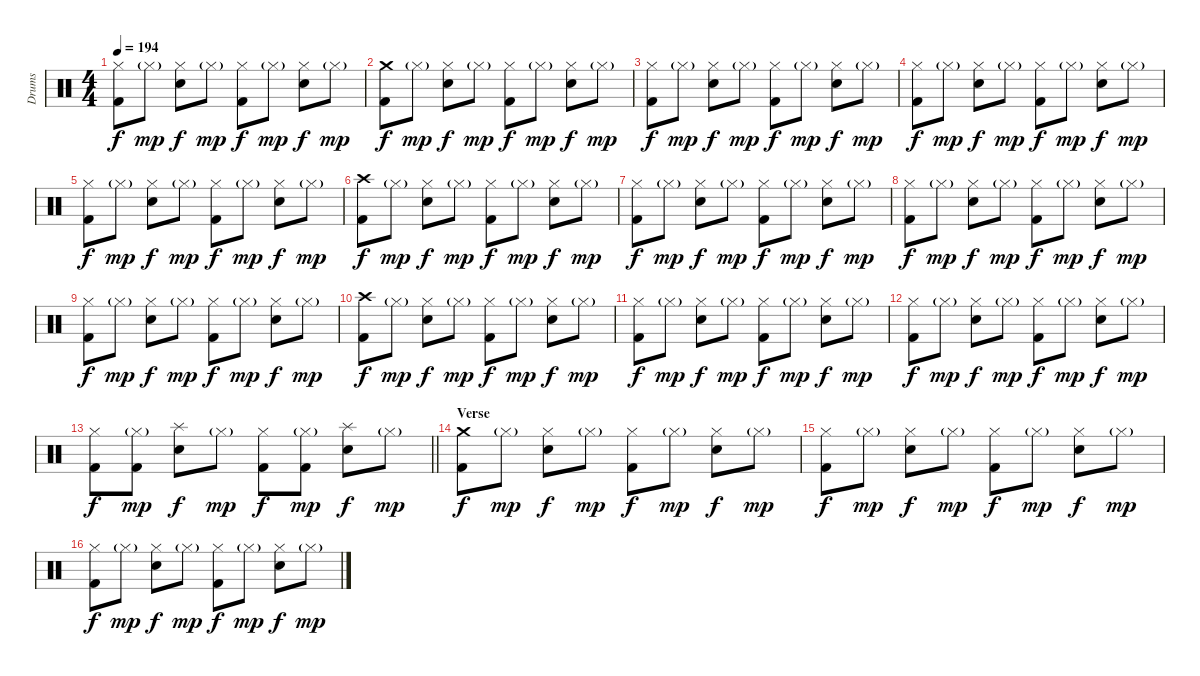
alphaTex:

\track ("Drums" "Drums") {instrument percussion}
\staff {score}
\articulation defaults
\ts (4 4)
\tempo 194
\clef neutral
\ks c
("Hi-Hat (closed)" "Kick (hit) 2").8{dy f} "Hi-Hat (closed)"{g}.8{dy mp} ("Hi-Hat (closed)" "Snare (hit) 2").8{dy f} "Hi-Hat (closed)"{g}.8{dy mp} ("Hi-Hat (closed)" "Kick (hit) 2").8{dy f} "Hi-Hat (closed)"{g}.8{dy mp} ("Hi-Hat (closed)" "Snare (hit) 2").8{dy f} "Hi-Hat (closed)"{g}.8{dy mp} |
("Crash medium (hit)" "Kick (hit) 2").8{dy f} "Hi-Hat (closed)"{g}.8{dy mp} ("Hi-Hat (closed)" "Snare (hit) 2").8{dy f} "Hi-Hat (closed)"{g}.8{dy mp} ("Hi-Hat (closed)" "Kick (hit) 2").8{dy f} "Hi-Hat (closed)"{g}.8{dy mp} ("Hi-Hat (closed)" "Snare (hit) 2").8{dy f} "Hi-Hat (closed)"{g}.8{dy mp} |
("Hi-Hat (closed)" "Kick (hit) 2").8{dy f} "Hi-Hat (closed)"{g}.8{dy mp} ("Hi-Hat (closed)" "Snare (hit) 2").8{dy f} "Hi-Hat (closed)"{g}.8{dy mp} ("Hi-Hat (closed)" "Kick (hit) 2").8{dy f} "Hi-Hat (closed)"{g}.8{dy mp} ("Hi-Hat (closed)" "Snare (hit) 2").8{dy f} "Hi-Hat (closed)"{g}.8{dy mp} |
("Hi-Hat (closed)" "Kick (hit) 2").8{dy f} "Hi-Hat (closed)"{g}.8{dy mp} ("Hi-Hat (closed)" "Snare (hit) 2").8{dy f} "Hi-Hat (closed)"{g}.8{dy mp} ("Hi-Hat (closed)" "Kick (hit) 2").8{dy f} "Hi-Hat (closed)"{g}.8{dy mp} ("Hi-Hat (closed)" "Snare (hit) 2").8{dy f} "Hi-Hat (closed)"{g}.8{dy mp} |
("Hi-Hat (closed)" "Kick (hit) 2").8{dy f} "Hi-Hat (closed)"{g}.8{dy mp} ("Hi-Hat (closed)" "Snare (hit) 2").8{dy f} "Hi-Hat (closed)"{g}.8{dy mp} ("Hi-Hat (closed)" "Kick (hit) 2").8{dy f} "Hi-Hat (closed)"{g}.8{dy mp} ("Hi-Hat (closed)" "Snare (hit) 2").8{dy f} "Hi-Hat (closed)"{g}.8{dy mp} |
("Crash high (hit)" "Kick (hit) 2").8{dy f} "Hi-Hat (closed)"{g}.8{dy mp} ("Hi-Hat (closed)" "Snare (hit) 2").8{dy f} "Hi-Hat (closed)"{g}.8{dy mp} ("Hi-Hat (closed)" "Kick (hit) 2").8{dy f} "Hi-Hat (closed)"{g}.8{dy mp} ("Hi-Hat (closed)" "Snare (hit) 2").8{dy f} "Hi-Hat (closed)"{g}.8{dy mp} |
("Hi-Hat (closed)" "Kick (hit) 2").8{dy f} "Hi-Hat (closed)"{g}.8{dy mp} ("Hi-Hat (closed)" "Snare (hit) 2").8{dy f} "Hi-Hat (closed)"{g}.8{dy mp} ("Hi-Hat (closed)" "Kick (hit) 2").8{dy f} "Hi-Hat (closed)"{g}.8{dy mp} ("Hi-Hat (closed)" "Snare (hit) 2").8{dy f} "Hi-Hat (closed)"{g}.8{dy mp} |
("Hi-Hat (closed)" "Kick (hit) 2").8{dy f} "Hi-Hat (closed)"{g}.8{dy mp} ("Hi-Hat (closed)" "Snare (hit) 2").8{dy f} "Hi-Hat (closed)"{g}.8{dy mp} ("Hi-Hat (closed)" "Kick (hit) 2").8{dy f} "Hi-Hat (closed)"{g}.8{dy mp} ("Hi-Hat (closed)" "Snare (hit) 2").8{dy f} "Hi-Hat (closed)"{g}.8{dy mp} |
("Hi-Hat (closed)" "Kick (hit) 2").8{dy f} "Hi-Hat (closed)"{g}.8{dy mp} ("Hi-Hat (closed)" "Snare (hit) 2").8{dy f} "Hi-Hat (closed)"{g}.8{dy mp} ("Hi-Hat (closed)" "Kick (hit) 2").8{dy f} "Hi-Hat (closed)"{g}.8{dy mp} ("Hi-Hat (closed)" "Snare (hit) 2").8{dy f} "Hi-Hat (closed)"{g}.8{dy mp} |
("Crash high (hit)" "Kick (hit) 2").8{dy f} "Hi-Hat (closed)"{g}.8{dy mp} ("Hi-Hat (closed)" "Snare (hit) 2").8{dy f} "Hi-Hat (closed)"{g}.8{dy mp} ("Hi-Hat (closed)" "Kick (hit) 2").8{dy f} "Hi-Hat (closed)"{g}.8{dy mp} ("Hi-Hat (closed)" "Snare (hit) 2").8{dy f} "Hi-Hat (closed)"{g}.8{dy mp} |
("Hi-Hat (closed)" "Kick (hit) 2").8{dy f} "Hi-Hat (closed)"{g}.8{dy mp} ("Hi-Hat (closed)" "Snare (hit) 2").8{dy f} "Hi-Hat (closed)"{g}.8{dy mp} ("Hi-Hat (closed)" "Kick (hit) 2").8{dy f} "Hi-Hat (closed)"{g}.8{dy mp} ("Hi-Hat (closed)" "Snare (hit) 2").8{dy f} "Hi-Hat (closed)"{g}.8{dy mp} |
("Hi-Hat (closed)" "Kick (hit) 2").8{dy f} "Hi-Hat (closed)"{g}.8{dy mp} ("Hi-Hat (closed)" "Snare (hit) 2").8{dy f} "Hi-Hat (closed)"{g}.8{dy mp} ("Hi-Hat (closed)" "Kick (hit) 2").8{dy f} "Hi-Hat (closed)"{g}.8{dy mp} ("Hi-Hat (closed)" "Snare (hit) 2").8{dy f} "Hi-Hat (closed)"{g}.8{dy mp} |
\barLineRight lightlight
("Hi-Hat (closed)" "Kick (hit) 2").8{dy f} ("Hi-Hat (closed)"{g} "Kick (hit) 2").8{dy mp} ("Splash (hit)" "Snare (hit) 2").8{dy f} "Hi-Hat (closed)"{g}.8{dy mp} ("Hi-Hat (closed)" "Kick (hit) 2").8{dy f} ("Hi-Hat (closed)"{g} "Kick (hit) 2").8{dy mp} ("Splash (hit)" "Snare (hit) 2").8{dy f} "Hi-Hat (closed)"{g}.8{dy mp} |
\section ("" "Verse")
("Crash medium (hit)" "Kick (hit) 2").8{dy f} "Hi-Hat (closed)"{g}.8{dy mp} ("Hi-Hat (closed)" "Snare (hit) 2").8{dy f} "Hi-Hat (closed)"{g}.8{dy mp} ("Hi-Hat (closed)" "Kick (hit) 2").8{dy f} "Hi-Hat (closed)"{g}.8{dy mp} ("Hi-Hat (closed)" "Snare (hit) 2").8{dy f} "Hi-Hat (closed)"{g}.8{dy mp} |
("Hi-Hat (closed)" "Kick (hit) 2").8{dy f} "Hi-Hat (closed)"{g}.8{dy mp} ("Hi-Hat (closed)" "Snare (hit) 2").8{dy f} "Hi-Hat (closed)"{g}.8{dy mp} ("Hi-Hat (closed)" "Kick (hit) 2").8{dy f} "Hi-Hat (closed)"{g}.8{dy mp} ("Hi-Hat (closed)" "Snare (hit) 2").8{dy f} "Hi-Hat (closed)"{g}.8{dy mp} |
("Hi-Hat (closed)" "Kick (hit) 2").8{dy f} "Hi-Hat (closed)"{g}.8{dy mp} ("Hi-Hat (closed)" "Snare (hit) 2").8{dy f} "Hi-Hat (closed)"{g}.8{dy mp} ("Hi-Hat (closed)" "Kick (hit) 2").8{dy f} "Hi-Hat (closed)"{g}.8{dy mp} ("Hi-Hat (closed)" "Snare (hit) 2").8{dy f} "Hi-Hat (closed)"{g}.8{dy mp}
